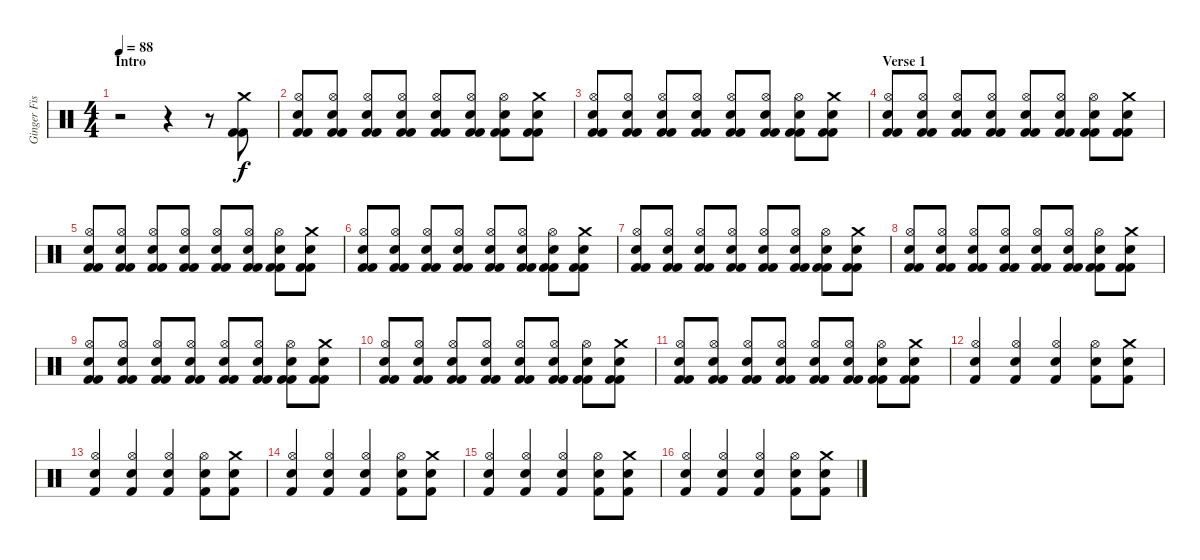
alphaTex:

\track ("Ginger Fish (Drums)" "Ginger Fis") {instrument percussion}
\staff {score}
\articulation defaults
\ts (4 4)
\section ("" "Intro")
\tempo 88
\clef neutral
\ks c
r.2{dy f} r.4 r.8 ("Crash medium (hit)" "Kick (hit) 2" "Kick (hit) 2").8 |
("Hi-Hat (open)" "Snare (hit) 2" "Kick (hit) 2" "Kick (hit) 2").8 ("Hi-Hat (open)" "Electric Snare (hit)" "Kick (hit) 2" "Kick (hit) 2").8 ("Hi-Hat (open)" "Snare (hit) 2" "Kick (hit) 2" "Kick (hit) 2").8 ("Hi-Hat (open)" "Electric Snare (hit)" "Kick (hit) 2" "Kick (hit) 2").8 ("Hi-Hat (open)" "Snare (hit) 2" "Kick (hit) 2" "Kick (hit) 2").8 ("Hi-Hat (open)" "Electric Snare (hit)" "Kick (hit) 2" "Kick (hit) 2").8 ("Hi-Hat (open)" "Snare (hit) 2" "Kick (hit) 2" "Kick (hit) 2").8 ("Crash medium (hit)" "Electric Snare (hit)" "Kick (hit) 2" "Kick (hit) 2").8 |
("Hi-Hat (open)" "Snare (hit) 2" "Kick (hit) 2" "Kick (hit) 2").8 ("Hi-Hat (open)" "Electric Snare (hit)" "Kick (hit) 2" "Kick (hit) 2").8 ("Hi-Hat (open)" "Snare (hit) 2" "Kick (hit) 2" "Kick (hit) 2").8 ("Hi-Hat (open)" "Electric Snare (hit)" "Kick (hit) 2" "Kick (hit) 2").8 ("Hi-Hat (open)" "Snare (hit) 2" "Kick (hit) 2" "Kick (hit) 2").8 ("Hi-Hat (open)" "Electric Snare (hit)" "Kick (hit) 2" "Kick (hit) 2").8 ("Hi-Hat (open)" "Snare (hit) 2" "Kick (hit) 2" "Kick (hit) 2").8 ("Crash medium (hit)" "Electric Snare (hit)" "Kick (hit) 2" "Kick (hit) 2").8 |
\section ("" "Verse 1")
("Hi-Hat (open)" "Snare (hit) 2" "Kick (hit) 2" "Kick (hit) 2").8 ("Hi-Hat (open)" "Electric Snare (hit)" "Kick (hit) 2" "Kick (hit) 2").8 ("Hi-Hat (open)" "Snare (hit) 2" "Kick (hit) 2" "Kick (hit) 2").8 ("Hi-Hat (open)" "Electric Snare (hit)" "Kick (hit) 2" "Kick (hit) 2").8 ("Hi-Hat (open)" "Snare (hit) 2" "Kick (hit) 2" "Kick (hit) 2").8 ("Hi-Hat (open)" "Electric Snare (hit)" "Kick (hit) 2" "Kick (hit) 2").8 ("Hi-Hat (open)" "Snare (hit) 2" "Kick (hit) 2" "Kick (hit) 2").8 ("Crash medium (hit)" "Electric Snare (hit)" "Kick (hit) 2" "Kick (hit) 2").8 |
("Hi-Hat (open)" "Snare (hit) 2" "Kick (hit) 2" "Kick (hit) 2").8 ("Hi-Hat (open)" "Electric Snare (hit)" "Kick (hit) 2" "Kick (hit) 2").8 ("Hi-Hat (open)" "Snare (hit) 2" "Kick (hit) 2" "Kick (hit) 2").8 ("Hi-Hat (open)" "Electric Snare (hit)" "Kick (hit) 2" "Kick (hit) 2").8 ("Hi-Hat (open)" "Snare (hit) 2" "Kick (hit) 2" "Kick (hit) 2").8 ("Hi-Hat (open)" "Electric Snare (hit)" "Kick (hit) 2" "Kick (hit) 2").8 ("Hi-Hat (open)" "Snare (hit) 2" "Kick (hit) 2" "Kick (hit) 2").8 ("Crash medium (hit)" "Electric Snare (hit)" "Kick (hit) 2" "Kick (hit) 2").8 |
("Hi-Hat (open)" "Snare (hit) 2" "Kick (hit) 2" "Kick (hit) 2").8 ("Hi-Hat (open)" "Electric Snare (hit)" "Kick (hit) 2" "Kick (hit) 2").8 ("Hi-Hat (open)" "Snare (hit) 2" "Kick (hit) 2" "Kick (hit) 2").8 ("Hi-Hat (open)" "Electric Snare (hit)" "Kick (hit) 2" "Kick (hit) 2").8 ("Hi-Hat (open)" "Snare (hit) 2" "Kick (hit) 2" "Kick (hit) 2").8 ("Hi-Hat (open)" "Electric Snare (hit)" "Kick (hit) 2" "Kick (hit) 2").8 ("Hi-Hat (open)" "Snare (hit) 2" "Kick (hit) 2" "Kick (hit) 2").8 ("Crash medium (hit)" "Electric Snare (hit)" "Kick (hit) 2" "Kick (hit) 2").8 |
("Hi-Hat (open)" "Snare (hit) 2" "Kick (hit) 2" "Kick (hit) 2").8 ("Hi-Hat (open)" "Electric Snare (hit)" "Kick (hit) 2" "Kick (hit) 2").8 ("Hi-Hat (open)" "Snare (hit) 2" "Kick (hit) 2" "Kick (hit) 2").8 ("Hi-Hat (open)" "Electric Snare (hit)" "Kick (hit) 2" "Kick (hit) 2").8 ("Hi-Hat (open)" "Snare (hit) 2" "Kick (hit) 2" "Kick (hit) 2").8 ("Hi-Hat (open)" "Electric Snare (hit)" "Kick (hit) 2" "Kick (hit) 2").8 ("Hi-Hat (open)" "Snare (hit) 2" "Kick (hit) 2" "Kick (hit) 2").8 ("Crash medium (hit)" "Electric Snare (hit)" "Kick (hit) 2" "Kick (hit) 2").8 |
("Hi-Hat (open)" "Snare (hit) 2" "Kick (hit) 2" "Kick (hit) 2").8 ("Hi-Hat (open)" "Electric Snare (hit)" "Kick (hit) 2" "Kick (hit) 2").8 ("Hi-Hat (open)" "Snare (hit) 2" "Kick (hit) 2" "Kick (hit) 2").8 ("Hi-Hat (open)" "Electric Snare (hit)" "Kick (hit) 2" "Kick (hit) 2").8 ("Hi-Hat (open)" "Snare (hit) 2" "Kick (hit) 2" "Kick (hit) 2").8 ("Hi-Hat (open)" "Electric Snare (hit)" "Kick (hit) 2" "Kick (hit) 2").8 ("Hi-Hat (open)" "Snare (hit) 2" "Kick (hit) 2" "Kick (hit) 2").8 ("Crash medium (hit)" "Electric Snare (hit)" "Kick (hit) 2" "Kick (hit) 2").8 |
("Hi-Hat (open)" "Snare (hit) 2" "Kick (hit) 2" "Kick (hit) 2").8 ("Hi-Hat (open)" "Electric Snare (hit)" "Kick (hit) 2" "Kick (hit) 2").8 ("Hi-Hat (open)" "Snare (hit) 2" "Kick (hit) 2" "Kick (hit) 2").8 ("Hi-Hat (open)" "Electric Snare (hit)" "Kick (hit) 2" "Kick (hit) 2").8 ("Hi-Hat (open)" "Snare (hit) 2" "Kick (hit) 2" "Kick (hit) 2").8 ("Hi-Hat (open)" "Electric Snare (hit)" "Kick (hit) 2" "Kick (hit) 2").8 ("Hi-Hat (open)" "Snare (hit) 2" "Kick (hit) 2" "Kick (hit) 2").8 ("Crash medium (hit)" "Electric Snare (hit)" "Kick (hit) 2" "Kick (hit) 2").8 |
("Hi-Hat (open)" "Snare (hit) 2" "Kick (hit) 2" "Kick (hit) 2").8 ("Hi-Hat (open)" "Electric Snare (hit)" "Kick (hit) 2" "Kick (hit) 2").8 ("Hi-Hat (open)" "Snare (hit) 2" "Kick (hit) 2" "Kick (hit) 2").8 ("Hi-Hat (open)" "Electric Snare (hit)" "Kick (hit) 2" "Kick (hit) 2").8 ("Hi-Hat (open)" "Snare (hit) 2" "Kick (hit) 2" "Kick (hit) 2").8 ("Hi-Hat (open)" "Electric Snare (hit)" "Kick (hit) 2" "Kick (hit) 2").8 ("Hi-Hat (open)" "Snare (hit) 2" "Kick (hit) 2" "Kick (hit) 2").8 ("Crash medium (hit)" "Electric Snare (hit)" "Kick (hit) 2" "Kick (hit) 2").8 |
("Hi-Hat (open)" "Snare (hit) 2" "Kick (hit) 2" "Kick (hit) 2").8 ("Hi-Hat (open)" "Electric Snare (hit)" "Kick (hit) 2" "Kick (hit) 2").8 ("Hi-Hat (open)" "Snare (hit) 2" "Kick (hit) 2" "Kick (hit) 2").8 ("Hi-Hat (open)" "Electric Snare (hit)" "Kick (hit) 2" "Kick (hit) 2").8 ("Hi-Hat (open)" "Snare (hit) 2" "Kick (hit) 2" "Kick (hit) 2").8 ("Hi-Hat (open)" "Electric Snare (hit)" "Kick (hit) 2" "Kick (hit) 2").8 ("Hi-Hat (open)" "Snare (hit) 2" "Kick (hit) 2" "Kick (hit) 2").8 ("Crash medium (hit)" "Electric Snare (hit)" "Kick (hit) 2" "Kick (hit) 2").8 |
("Hi-Hat (open)" "Snare (hit) 2" "Kick (hit) 2").4 ("Hi-Hat (open)" "Snare (hit) 2" "Kick (hit) 2").4 ("Hi-Hat (open)" "Snare (hit) 2" "Kick (hit) 2").4 ("Hi-Hat (open)" "Snare (hit) 2" "Kick (hit) 2").8 ("Crash medium (hit)" "Electric Snare (hit)" "Kick (hit) 2").8 |
("Hi-Hat (open)" "Snare (hit) 2" "Kick (hit) 2").4 ("Hi-Hat (open)" "Snare (hit) 2" "Kick (hit) 2").4 ("Hi-Hat (open)" "Snare (hit) 2" "Kick (hit) 2").4 ("Hi-Hat (open)" "Snare (hit) 2" "Kick (hit) 2").8 ("Crash medium (hit)" "Electric Snare (hit)" "Kick (hit) 2").8 |
("Hi-Hat (open)" "Snare (hit) 2" "Kick (hit) 2").4 ("Hi-Hat (open)" "Snare (hit) 2" "Kick (hit) 2").4 ("Hi-Hat (open)" "Snare (hit) 2" "Kick (hit) 2").4 ("Hi-Hat (open)" "Snare (hit) 2" "Kick (hit) 2").8 ("Crash medium (hit)" "Electric Snare (hit)" "Kick (hit) 2").8 |
("Hi-Hat (open)" "Snare (hit) 2" "Kick (hit) 2").4 ("Hi-Hat (open)" "Snare (hit) 2" "Kick (hit) 2").4 ("Hi-Hat (open)" "Snare (hit) 2" "Kick (hit) 2").4 ("Hi-Hat (open)" "Snare (hit) 2" "Kick (hit) 2").8 ("Crash medium (hit)" "Electric Snare (hit)" "Kick (hit) 2").8 |
("Hi-Hat (open)" "Snare (hit) 2" "Kick (hit) 2").4 ("Hi-Hat (open)" "Snare (hit) 2" "Kick (hit) 2").4 ("Hi-Hat (open)" "Snare (hit) 2" "Kick (hit) 2").4 ("Hi-Hat (open)" "Snare (hit) 2" "Kick (hit) 2").8 ("Crash medium (hit)" "Electric Snare (hit)" "Kick (hit) 2").8
